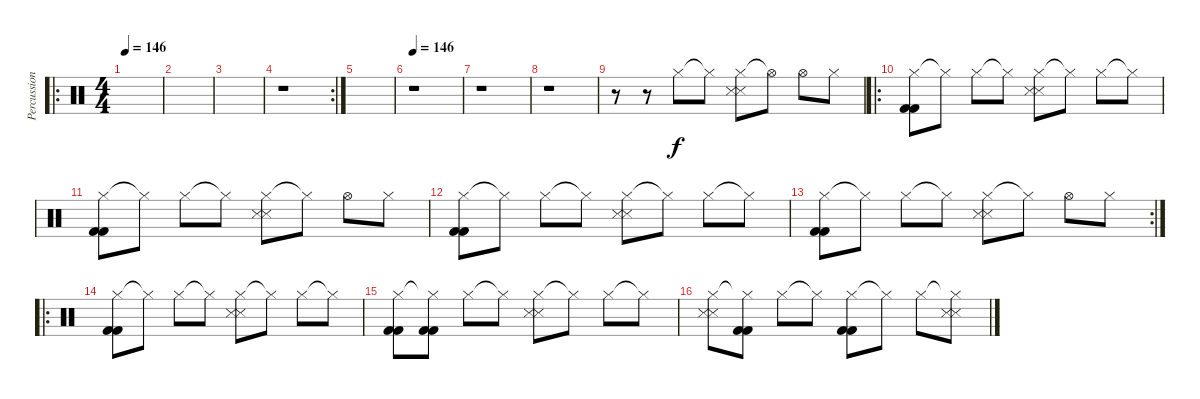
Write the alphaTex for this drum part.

\track ("Percussions" "Percussion") {instrument percussion}
\staff {score}
\articulation defaults
\ro
\ts (4 4)
\tempo 146
\tempo 130
\tempo 146
\clef neutral
\ks c
|
|
|
\rc 2
r.1 |
|
\tempo 146
r.1 |
r.1 |
r.1 |
r.8 r.8 "Hi-Hat (closed)".8 "Hi-Hat (closed)"{t}.8 ("Hi-Hat (closed)" "Snare (side stick) 3" "Snare (side stick) 3").8 "Hi-Hat (open)"{t}.8 "Hi-Hat (open)".8 "Hi-Hat (closed)".8 |
\ro
("Hi-Hat (closed)" "Kick (hit) 2" "Kick (hit) 2").8 "Hi-Hat (closed)"{t}.8 "Hi-Hat (closed)".8 "Hi-Hat (closed)"{t}.8 ("Hi-Hat (closed)" "Snare (side stick) 3" "Snare (side stick) 3").8 "Hi-Hat (closed)"{t}.8 "Hi-Hat (closed)".8 "Hi-Hat (closed)"{t}.8 |
("Hi-Hat (closed)" "Kick (hit) 2" "Kick (hit) 2").8 "Hi-Hat (closed)"{t}.8 "Hi-Hat (closed)".8 "Hi-Hat (closed)"{t}.8 ("Hi-Hat (closed)" "Snare (side stick) 3" "Snare (side stick) 3").8 "Hi-Hat (closed)"{t}.8 "Hi-Hat (open)".8 "Hi-Hat (closed)".8 |
("Hi-Hat (closed)" "Kick (hit) 2" "Kick (hit) 2").8 "Hi-Hat (closed)"{t}.8 "Hi-Hat (closed)".8 "Hi-Hat (closed)"{t}.8 ("Hi-Hat (closed)" "Snare (side stick) 3" "Snare (side stick) 3").8 "Hi-Hat (closed)"{t}.8 "Hi-Hat (closed)".8 "Hi-Hat (closed)"{t}.8 |
\rc 2
("Hi-Hat (closed)" "Kick (hit) 2" "Kick (hit) 2").8 "Hi-Hat (closed)"{t}.8 "Hi-Hat (closed)".8 "Hi-Hat (closed)"{t}.8 ("Hi-Hat (closed)" "Snare (side stick) 3" "Snare (side stick) 3").8 "Hi-Hat (closed)"{t}.8 "Hi-Hat (open)".8 "Hi-Hat (closed)".8 |
\ro
("Hi-Hat (closed)" "Kick (hit) 2" "Kick (hit) 2").8 "Hi-Hat (closed)"{t}.8 "Hi-Hat (closed)".8 "Hi-Hat (closed)"{t}.8 ("Hi-Hat (closed)" "Snare (side stick) 3" "Snare (side stick) 3").8 "Hi-Hat (closed)"{t}.8 "Hi-Hat (closed)".8 "Hi-Hat (closed)"{t}.8 |
("Hi-Hat (closed)" "Kick (hit) 2" "Kick (hit) 2").8 ("Hi-Hat (closed)"{t} "Kick (hit) 2" "Kick (hit) 2").8 "Hi-Hat (closed)".8 "Hi-Hat (closed)"{t}.8 ("Hi-Hat (closed)" "Snare (side stick) 3" "Snare (side stick) 3").8 "Hi-Hat (closed)"{t}.8 "Hi-Hat (closed)".8 "Hi-Hat (closed)"{t}.8 |
("Hi-Hat (closed)" "Snare (side stick) 3" "Snare (side stick) 3").8 ("Hi-Hat (closed)"{t} "Kick (hit) 2" "Kick (hit) 2").8 "Hi-Hat (closed)".8 "Hi-Hat (closed)"{t}.8 ("Hi-Hat (closed)" "Kick (hit) 2" "Kick (hit) 2").8 "Hi-Hat (closed)"{t}.8 "Hi-Hat (closed)".8 ("Hi-Hat (closed)"{t} "Snare (side stick) 3" "Snare (side stick) 3").8
